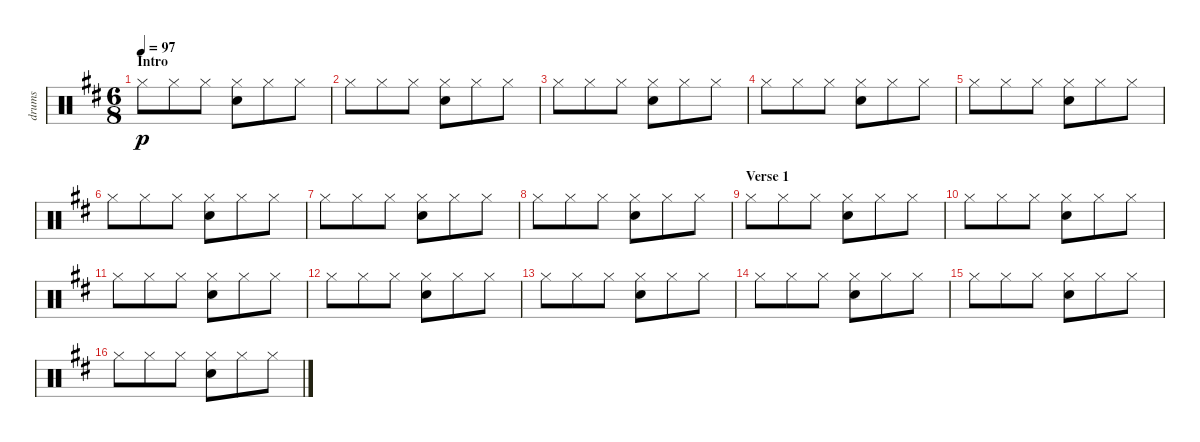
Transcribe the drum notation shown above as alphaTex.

\track ("drums" "drums") {instrument percussion}
\staff {score}
\articulation defaults
\ts (6 8)
\section ("" "Intro")
\tempo 97
\clef neutral
\ks d "Hi-Hat (closed)".8{dy p} "Hi-Hat (closed)".8 "Hi-Hat (closed)".8
("Hi-Hat (closed)" "Electric Snare (hit)").8 "Hi-Hat (closed)".8 "Hi-Hat (closed)".8 |
"Hi-Hat (closed)".8 "Hi-Hat (closed)".8 "Hi-Hat (closed)".8 ("Hi-Hat (closed)" "Electric Snare (hit)").8 "Hi-Hat (closed)".8 "Hi-Hat (closed)".8 |
"Hi-Hat (closed)".8 "Hi-Hat (closed)".8 "Hi-Hat (closed)".8 ("Hi-Hat (closed)" "Electric Snare (hit)").8 "Hi-Hat (closed)".8 "Hi-Hat (closed)".8 |
"Hi-Hat (closed)".8 "Hi-Hat (closed)".8 "Hi-Hat (closed)".8 ("Hi-Hat (closed)" "Electric Snare (hit)").8 "Hi-Hat (closed)".8 "Hi-Hat (closed)".8 |
"Hi-Hat (closed)".8 "Hi-Hat (closed)".8 "Hi-Hat (closed)".8 ("Hi-Hat (closed)" "Electric Snare (hit)").8 "Hi-Hat (closed)".8 "Hi-Hat (closed)".8 |
"Hi-Hat (closed)".8 "Hi-Hat (closed)".8 "Hi-Hat (closed)".8 ("Hi-Hat (closed)" "Electric Snare (hit)").8 "Hi-Hat (closed)".8 "Hi-Hat (closed)".8 |
"Hi-Hat (closed)".8 "Hi-Hat (closed)".8 "Hi-Hat (closed)".8 ("Hi-Hat (closed)" "Electric Snare (hit)").8 "Hi-Hat (closed)".8 "Hi-Hat (closed)".8 |
"Hi-Hat (closed)".8 "Hi-Hat (closed)".8 "Hi-Hat (closed)".8 ("Hi-Hat (closed)" "Electric Snare (hit)").8 "Hi-Hat (closed)".8 "Hi-Hat (closed)".8 |
\section ("" "Verse 1")
"Hi-Hat (closed)".8 "Hi-Hat (closed)".8 "Hi-Hat (closed)".8 ("Hi-Hat (closed)" "Electric Snare (hit)").8 "Hi-Hat (closed)".8 "Hi-Hat (closed)".8 |
"Hi-Hat (closed)".8 "Hi-Hat (closed)".8 "Hi-Hat (closed)".8 ("Hi-Hat (closed)" "Electric Snare (hit)").8 "Hi-Hat (closed)".8 "Hi-Hat (closed)".8 |
"Hi-Hat (closed)".8 "Hi-Hat (closed)".8 "Hi-Hat (closed)".8 ("Hi-Hat (closed)" "Electric Snare (hit)").8 "Hi-Hat (closed)".8 "Hi-Hat (closed)".8 |
"Hi-Hat (closed)".8 "Hi-Hat (closed)".8 "Hi-Hat (closed)".8 ("Hi-Hat (closed)" "Electric Snare (hit)").8 "Hi-Hat (closed)".8 "Hi-Hat (closed)".8 |
"Hi-Hat (closed)".8 "Hi-Hat (closed)".8 "Hi-Hat (closed)".8 ("Hi-Hat (closed)" "Electric Snare (hit)").8 "Hi-Hat (closed)".8 "Hi-Hat (closed)".8 |
"Hi-Hat (closed)".8 "Hi-Hat (closed)".8 "Hi-Hat (closed)".8 ("Hi-Hat (closed)" "Electric Snare (hit)").8 "Hi-Hat (closed)".8 "Hi-Hat (closed)".8 |
"Hi-Hat (closed)".8 "Hi-Hat (closed)".8 "Hi-Hat (closed)".8 ("Hi-Hat (closed)" "Electric Snare (hit)").8 "Hi-Hat (closed)".8 "Hi-Hat (closed)".8 |
"Hi-Hat (closed)".8 "Hi-Hat (closed)".8 "Hi-Hat (closed)".8 ("Hi-Hat (closed)" "Electric Snare (hit)").8 "Hi-Hat (closed)".8 "Hi-Hat (closed)".8
